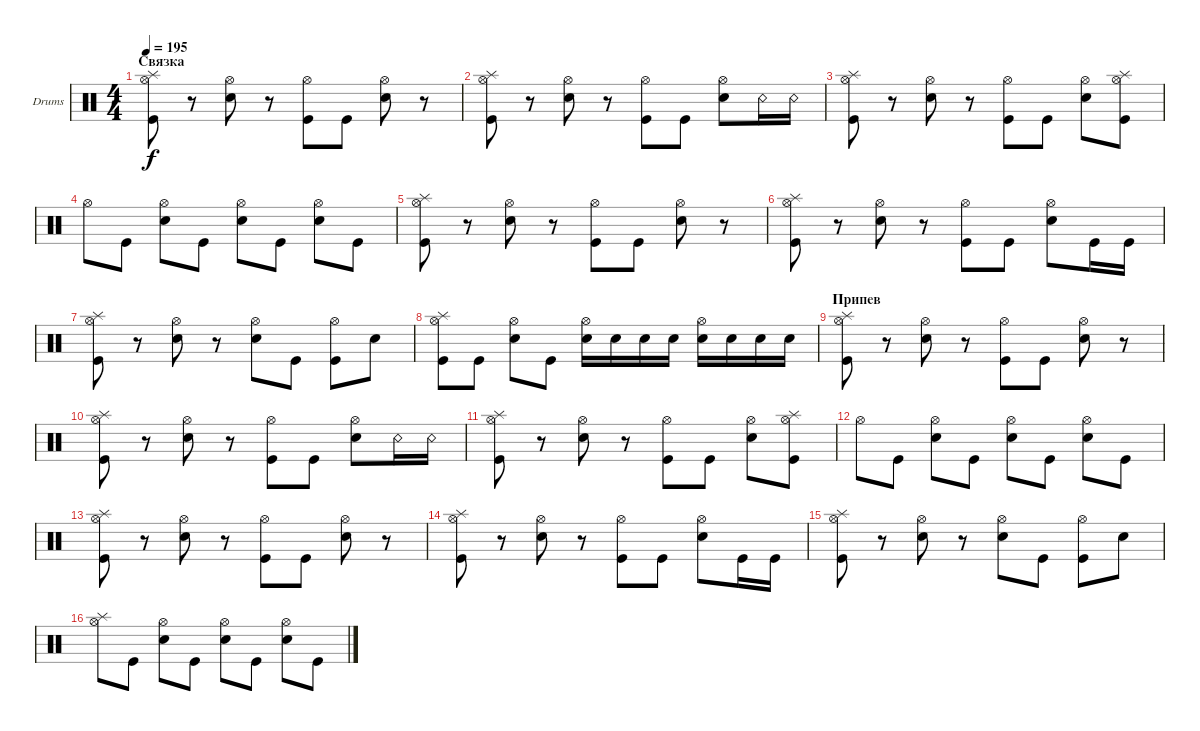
\defaultSystemsLayout 4
\bracketExtendMode groupsimilarinstruments
\firstSystemTrackNameOrientation horizontal
\otherSystemsTrackNameOrientation horizontal
\track ("Drumkit" "Drums") {instrument percussion}
\staff {score}
\articulation defaults
\ts (4 4)
\section ("" "Связка")
\tempo 195
\clef neutral
\ks c
("Kick (hit)" "Hi-Hat (open)" "Splash (hit)").8{dy f} r.8 ("Hi-Hat (open)" "Snare (hit) 2").8 r.8 ("Hi-Hat (open)" "Kick (hit)").8 "Kick (hit)".8 ("Hi-Hat (open)" "Snare (hit) 2").8 r.8 |
("Kick (hit)" "Hi-Hat (open)" "Splash (hit)").8 r.8 ("Hi-Hat (open)" "Snare (hit) 2").8 r.8 ("Hi-Hat (open)" "Kick (hit)").8 "Kick (hit)".8 ("Hi-Hat (open)" "Snare (hit) 2").8 "Snare (rim shot)".16 "Snare (rim shot)".16 |
("Kick (hit)" "Hi-Hat (open)" "Splash (hit)").8 r.8 ("Hi-Hat (open)" "Snare (hit) 2").8 r.8 ("Hi-Hat (open)" "Kick (hit)").8 "Kick (hit)".8 ("Hi-Hat (open)" "Snare (hit) 2").8 ("Hi-Hat (open)" "Splash (hit)" "Kick (hit)").8 |
"Hi-Hat (open)".8 "Kick (hit)".8 ("Hi-Hat (open)" "Snare (hit) 2").8 "Kick (hit)".8 ("Hi-Hat (open)" "Snare (hit) 2").8 "Kick (hit)".8 ("Hi-Hat (open)" "Snare (hit) 2").8 "Kick (hit)".8 |
("Kick (hit)" "Hi-Hat (open)" "Splash (hit)").8 r.8 ("Hi-Hat (open)" "Snare (hit) 2").8 r.8 ("Hi-Hat (open)" "Kick (hit)").8 "Kick (hit)".8 ("Hi-Hat (open)" "Snare (hit) 2").8 r.8 |
("Kick (hit)" "Hi-Hat (open)" "Splash (hit)").8 r.8 ("Hi-Hat (open)" "Snare (hit) 2").8 r.8 ("Hi-Hat (open)" "Kick (hit)").8 "Kick (hit)".8 ("Hi-Hat (open)" "Snare (hit) 2").8 "Kick (hit)".16 "Kick (hit)".16 |
("Kick (hit)" "Hi-Hat (open)" "Splash (hit)").8 r.8 ("Snare (hit) 2" "Hi-Hat (open)").8 r.8 ("Snare (hit) 2" "Hi-Hat (open)").8 "Kick (hit)".8 ("Kick (hit)" "Hi-Hat (open)").8 "Snare (hit) 2".8 |
("Hi-Hat (open)" "Splash (hit)" "Kick (hit)").8 "Kick (hit)".8 ("Snare (hit) 2" "Hi-Hat (open)").8 "Kick (hit)".8 ("Hi-Hat (open)" "Snare (hit) 2").16 "Snare (hit) 2".16 "Snare (hit) 2".16 "Snare (hit) 2".16 ("Snare (hit) 2" "Hi-Hat (open)").16 "Snare (hit) 2".16 "Snare (hit) 2".16 "Snare (hit) 2".16 |
\section ("" "Припев")
("Kick (hit)" "Hi-Hat (open)" "Splash (hit)").8 r.8 ("Hi-Hat (open)" "Snare (hit) 2").8 r.8 ("Hi-Hat (open)" "Kick (hit)").8 "Kick (hit)".8 ("Hi-Hat (open)" "Snare (hit) 2").8 r.8 |
("Kick (hit)" "Hi-Hat (open)" "Splash (hit)").8 r.8 ("Hi-Hat (open)" "Snare (hit) 2").8 r.8 ("Hi-Hat (open)" "Kick (hit)").8 "Kick (hit)".8 ("Hi-Hat (open)" "Snare (hit) 2").8 "Snare (rim shot)".16 "Snare (rim shot)".16 |
("Kick (hit)" "Hi-Hat (open)" "Splash (hit)").8 r.8 ("Hi-Hat (open)" "Snare (hit) 2").8 r.8 ("Hi-Hat (open)" "Kick (hit)").8 "Kick (hit)".8 ("Hi-Hat (open)" "Snare (hit) 2").8 ("Hi-Hat (open)" "Splash (hit)" "Kick (hit)").8 |
"Hi-Hat (open)".8 "Kick (hit)".8 ("Hi-Hat (open)" "Snare (hit) 2").8 "Kick (hit)".8 ("Hi-Hat (open)" "Snare (hit) 2").8 "Kick (hit)".8 ("Hi-Hat (open)" "Snare (hit) 2").8 "Kick (hit)".8 |
("Kick (hit)" "Hi-Hat (open)" "Splash (hit)").8 r.8 ("Hi-Hat (open)" "Snare (hit) 2").8 r.8 ("Hi-Hat (open)" "Kick (hit)").8 "Kick (hit)".8 ("Hi-Hat (open)" "Snare (hit) 2").8 r.8 |
("Kick (hit)" "Hi-Hat (open)" "Splash (hit)").8 r.8 ("Hi-Hat (open)" "Snare (hit) 2").8 r.8 ("Hi-Hat (open)" "Kick (hit)").8 "Kick (hit)".8 ("Hi-Hat (open)" "Snare (hit) 2").8 "Kick (hit)".16 "Kick (hit)".16 |
("Kick (hit)" "Hi-Hat (open)" "Splash (hit)").8 r.8 ("Snare (hit) 2" "Hi-Hat (open)").8 r.8 ("Snare (hit) 2" "Hi-Hat (open)").8 "Kick (hit)".8 ("Kick (hit)" "Hi-Hat (open)").8 "Snare (hit) 2".8 |
("Hi-Hat (open)" "Splash (hit)").8 "Kick (hit)".8 ("Snare (hit) 2" "Hi-Hat (open)").8 "Kick (hit)".8 ("Snare (hit) 2" "Hi-Hat (open)").8 "Kick (hit)".8 ("Snare (hit) 2" "Hi-Hat (open)").8 "Kick (hit)".8
